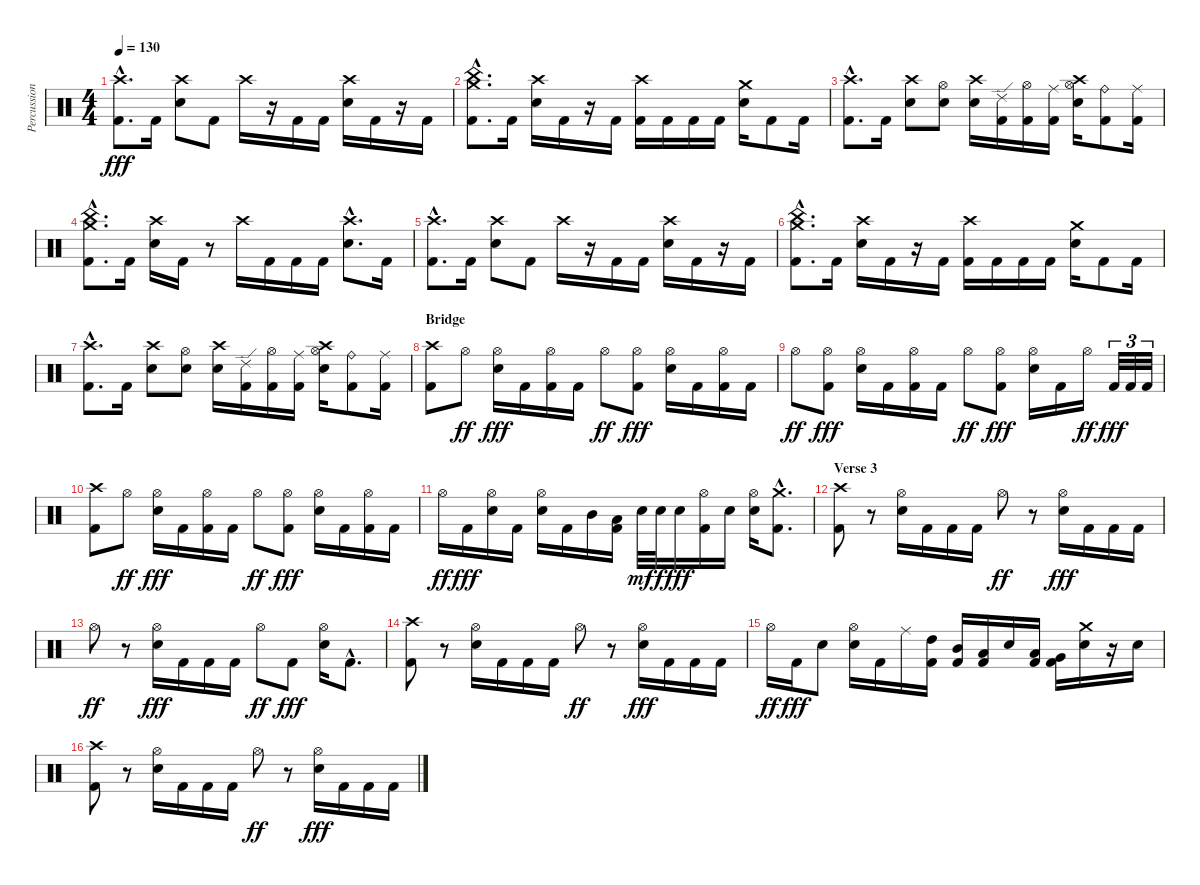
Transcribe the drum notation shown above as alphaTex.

\track ("Percussion" "Percussion") {instrument percussion}
\staff {score}
\articulation defaults
\ts (4 4)
\tempo 130
\clef neutral
\ks c
("Crash high (hit)"{hac} "Kick (hit) 2"{hac}).8{d dy fff} "Kick (hit) 2".16 ("Crash high (hit)" "Electric Snare (hit)").8 "Kick (hit) 2".8 "Crash high (hit)".16 r.16 "Kick (hit) 2".16 "Kick (hit) 2".16 ("Crash high (hit)" "Electric Snare (hit)").16 "Kick (hit) 2".16 r.16 "Kick (hit) 2".16 |
("Crash medium (hit)"{hac} "China (hit)"{hac} "Kick (hit) 2"{hac}).8{d} "Kick (hit) 2".16 ("Crash high (hit)" "Electric Snare (hit)").16 "Kick (hit) 2".16 r.16 "Kick (hit) 2".16 ("Crash high (hit)" "Kick (hit) 2").16 "Kick (hit) 2".16 "Kick (hit) 2".16 "Kick (hit) 2".16 ("Crash medium (hit)" "Electric Snare (hit)").16 "Kick (hit) 2".8 "Kick (hit) 2".16 |
("Crash high (hit)"{hac} "Kick (hit) 2"{hac}).8{d} "Kick (hit) 2".16 ("Crash high (hit)" "Electric Snare (hit)").8 ("Hi-Hat (open)" "Electric Snare (hit)").8 ("Crash high (hit)" "Electric Snare (hit)").16 ("Ride (edge) 2" "Kick (hit) 2").16 ("Hi-Hat (open)" "Kick (hit) 2").16 ("Ride (middle)" "Kick (hit) 2").16 ("Crash high (hit)" "Hi-Hat (open)" "Electric Snare (hit)").16 ("Ride (bell)" "Kick (hit) 2").8 ("Ride (middle)" "Kick (hit) 2").16 |
("Crash medium (hit)"{hac} "China (hit)"{hac} "Kick (hit) 2"{hac}).8{d} "Kick (hit) 2".16 ("Crash high (hit)" "Electric Snare (hit)").16 "Kick (hit) 2".16 r.8 "Crash high (hit)".16 "Kick (hit) 2".16 "Kick (hit) 2".16 "Kick (hit) 2".16 ("Crash high (hit)"{hac} "Electric Snare (hit)"{hac}).8{d} "Kick (hit) 2".16 |
("Crash high (hit)"{hac} "Kick (hit) 2"{hac}).8{d} "Kick (hit) 2".16 ("Crash high (hit)" "Electric Snare (hit)").8 "Kick (hit) 2".8 "Crash high (hit)".16 r.16 "Kick (hit) 2".16 "Kick (hit) 2".16 ("Crash high (hit)" "Electric Snare (hit)").16 "Kick (hit) 2".16 r.16 "Kick (hit) 2".16 |
("Crash medium (hit)"{hac} "China (hit)"{hac} "Kick (hit) 2"{hac}).8{d} "Kick (hit) 2".16 ("Crash high (hit)" "Electric Snare (hit)").16 "Kick (hit) 2".16 r.16 "Kick (hit) 2".16 ("Crash high (hit)" "Kick (hit) 2").16 "Kick (hit) 2".16 "Kick (hit) 2".16 "Kick (hit) 2".16 ("Crash medium (hit)" "Electric Snare (hit)").16 "Kick (hit) 2".8 "Kick (hit) 2".16 |
("Crash high (hit)"{hac} "Kick (hit) 2"{hac}).8{d} "Kick (hit) 2".16 ("Crash high (hit)" "Electric Snare (hit)").8 ("Hi-Hat (open)" "Electric Snare (hit)").8 ("Crash high (hit)" "Electric Snare (hit)").16 ("Ride (edge) 2" "Kick (hit) 2").16 ("Hi-Hat (open)" "Kick (hit) 2").16 ("Ride (middle)" "Kick (hit) 2").16 ("Crash high (hit)" "Hi-Hat (open)" "Electric Snare (hit)").16 ("Ride (bell)" "Kick (hit) 2").8 ("Ride (middle)" "Kick (hit) 2").16 |
\section ("" "Bridge")
("Crash high (hit)" "Kick (hit) 2").8 "Hi-Hat (open)".8{dy ff} ("Hi-Hat (open)" "Electric Snare (hit)").16{dy fff} "Kick (hit) 2".16 ("Hi-Hat (open)" "Kick (hit) 2").16 "Kick (hit) 2".16 "Hi-Hat (open)".8{dy ff} ("Hi-Hat (open)" "Kick (hit) 2").8{dy fff} ("Hi-Hat (open)" "Electric Snare (hit)").16 "Kick (hit) 2".16 ("Hi-Hat (open)" "Kick (hit) 2").16 "Kick (hit) 2".16 |
"Hi-Hat (open)".8{dy ff} ("Hi-Hat (open)" "Kick (hit) 2").8{dy fff} ("Hi-Hat (open)" "Electric Snare (hit)").16 "Kick (hit) 2".16 ("Hi-Hat (open)" "Kick (hit) 2").16 "Kick (hit) 2".16 "Hi-Hat (open)".8{dy ff} ("Hi-Hat (open)" "Kick (hit) 2").8{dy fff} ("Hi-Hat (open)" "Electric Snare (hit)").16 "Kick (hit) 2".16 "Hi-Hat (open)".16{dy ff} "Kick (hit) 2".32{tu (3 2) dy fff} "Kick (hit) 2".32{tu (3 2)} "Kick (hit) 2".32{tu (3 2)} |
("Crash high (hit)" "Kick (hit) 2").8 "Hi-Hat (open)".8{dy ff} ("Hi-Hat (open)" "Electric Snare (hit)").16{dy fff} "Kick (hit) 2".16 ("Hi-Hat (open)" "Kick (hit) 2").16 "Kick (hit) 2".16 "Hi-Hat (open)".8{dy ff} ("Hi-Hat (open)" "Kick (hit) 2").8{dy fff} ("Hi-Hat (open)" "Electric Snare (hit)").16 "Kick (hit) 2".16 ("Hi-Hat (open)" "Kick (hit) 2").16 "Kick (hit) 2".16 |
"Hi-Hat (open)".16{dy ff} "Kick (hit) 2".16{dy fff} ("Hi-Hat (open)" "Electric Snare (hit)").16 "Kick (hit) 2".16 ("Hi-Hat (open)" "Electric Snare (hit)").16 "Kick (hit) 2".16 "Mid Tom (hit)".16 ("Low Tom (hit)" "Kick (hit) 2").16 "Electric Snare (hit)".32{dy mf} "Electric Snare (hit)".32{dy f} "Electric Snare (hit)".16{dy fff} ("Hi-Hat (open)" "Kick (hit) 2").16 "Electric Snare (hit)".16 ("Hi-Hat (open)" "Electric Snare (hit)").16 ("Crash medium (hit)"{hac} "Kick (hit) 2"{hac}).8{d} |
\section ("" "Verse 3")
("Crash high (hit)" "Kick (hit) 2").8 r.8 ("Hi-Hat (open)" "Electric Snare (hit)").16 "Kick (hit) 2".16 "Kick (hit) 2".16 "Kick (hit) 2".16 "Hi-Hat (open)".8{dy ff} r.8 ("Hi-Hat (open)" "Electric Snare (hit)").16{dy fff} "Kick (hit) 2".16 "Kick (hit) 2".16 "Kick (hit) 2".16 |
"Hi-Hat (open)".8{dy ff} r.8 ("Hi-Hat (open)" "Electric Snare (hit)").16{dy fff} "Kick (hit) 2".16 "Kick (hit) 2".16 "Kick (hit) 2".16 "Hi-Hat (open)".8{dy ff} "Kick (hit) 2".8{dy fff} ("Hi-Hat (open)" "Electric Snare (hit)").16 "Kick (hit) 2"{hac}.8{d} |
("Crash high (hit)" "Kick (hit) 2").8 r.8 ("Hi-Hat (open)" "Electric Snare (hit)").16 "Kick (hit) 2".16 "Kick (hit) 2".16 "Kick (hit) 2".16 "Hi-Hat (open)".8{dy ff} r.8 ("Hi-Hat (open)" "Electric Snare (hit)").16{dy fff} "Kick (hit) 2".16 "Kick (hit) 2".16 "Kick (hit) 2".16 |
"Hi-Hat (open)".16{dy ff} "Kick (hit) 2".16{dy fff} "Electric Snare (hit)".8 ("Hi-Hat (open)" "Electric Snare (hit)").16 "Kick (hit) 2".16 "Ride (middle)".16 ("High Tom (hit)" "Kick (hit) 2").16 ("Mid Tom (hit)" "Kick (hit) 2").16 ("Low Tom (hit)" "Kick (hit) 2").16 "Electric Snare (hit)".16 ("Low Tom (hit)" "Kick (hit) 2").16 ("Very Low Tom (hit)" "Kick (hit) 2").16 ("Crash medium (hit)" "Electric Snare (hit)").16 r.16 "Electric Snare (hit)".16 |
("Crash high (hit)" "Kick (hit) 2").8 r.8 ("Hi-Hat (open)" "Electric Snare (hit)").16 "Kick (hit) 2".16 "Kick (hit) 2".16 "Kick (hit) 2".16 "Hi-Hat (open)".8{dy ff} r.8 ("Hi-Hat (open)" "Electric Snare (hit)").16{dy fff} "Kick (hit) 2".16 "Kick (hit) 2".16 "Kick (hit) 2".16
